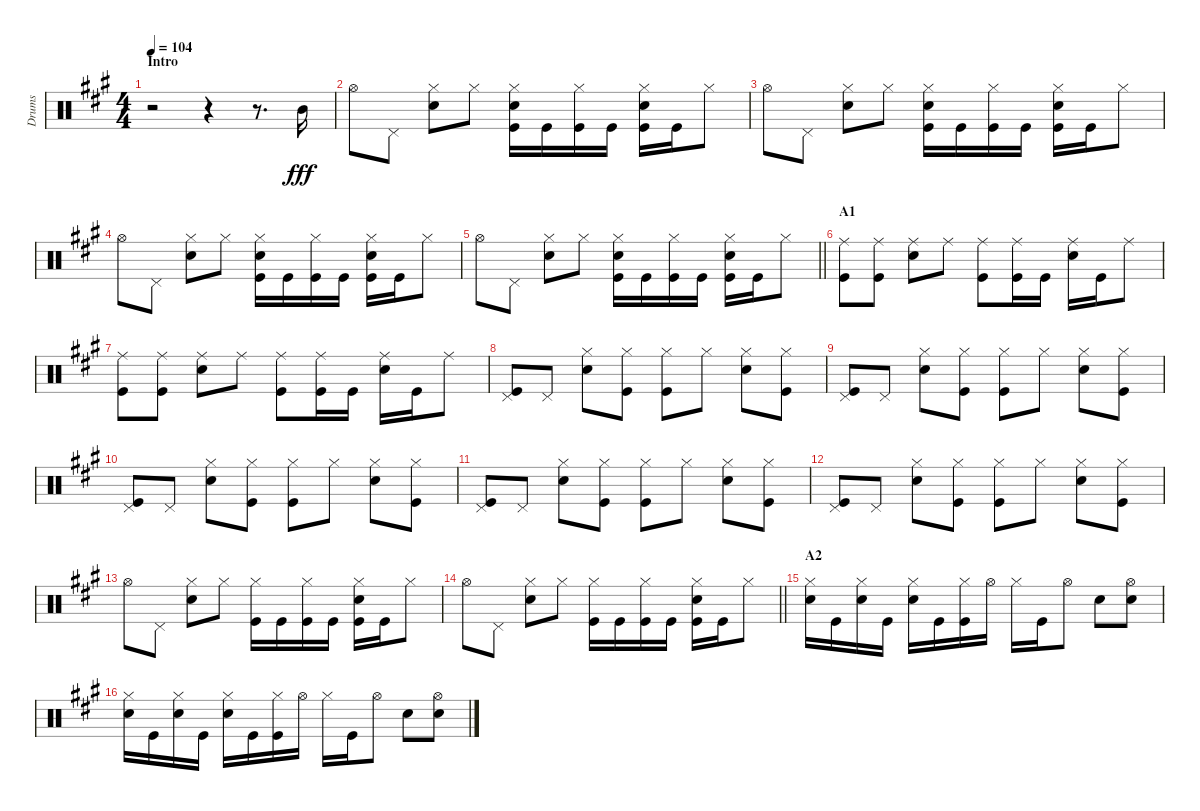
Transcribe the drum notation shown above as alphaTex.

\track ("Drums" "Drums") {instrument percussion}
\staff {score}
\articulation defaults
\ts (4 4)
\section ("" "Intro")
\tempo 104
\clef neutral
\ks a
r.2{dy fff} r.4 r.8{d} "Mid Tom (hit)".16 |
"Hi-Hat (open)".8 "Pedal Hi-Hat (hit)".8 ("Hi-Hat (closed)" "Snare (hit) 2").8 "Hi-Hat (closed)".8 ("Hi-Hat (closed)" "Snare (hit) 2" "Kick (hit)").16 "Kick (hit)".16 ("Hi-Hat (closed)" "Kick (hit)").16 "Kick (hit)".16 ("Hi-Hat (closed)" "Snare (hit) 2" "Kick (hit)").16 "Kick (hit)".16 "Hi-Hat (closed)".8 |
"Hi-Hat (open)".8 "Pedal Hi-Hat (hit)".8 ("Hi-Hat (closed)" "Snare (hit) 2").8 "Hi-Hat (closed)".8 ("Hi-Hat (closed)" "Snare (hit) 2" "Kick (hit)").16 "Kick (hit)".16 ("Hi-Hat (closed)" "Kick (hit)").16 "Kick (hit)".16 ("Hi-Hat (closed)" "Snare (hit) 2" "Kick (hit)").16 "Kick (hit)".16 "Hi-Hat (closed)".8 |
"Hi-Hat (open)".8 "Pedal Hi-Hat (hit)".8 ("Hi-Hat (closed)" "Snare (hit) 2").8 "Hi-Hat (closed)".8 ("Hi-Hat (closed)" "Snare (hit) 2" "Kick (hit)").16 "Kick (hit)".16 ("Hi-Hat (closed)" "Kick (hit)").16 "Kick (hit)".16 ("Hi-Hat (closed)" "Snare (hit) 2" "Kick (hit)").16 "Kick (hit)".16 "Hi-Hat (closed)".8 |
\barLineRight lightlight "Hi-Hat (open)".8 "Pedal Hi-Hat (hit)".8
("Hi-Hat (closed)" "Snare (hit) 2").8 "Hi-Hat (closed)".8 ("Hi-Hat (closed)" "Snare (hit) 2" "Kick (hit)").16 "Kick (hit)".16 ("Hi-Hat (closed)" "Kick (hit)").16 "Kick (hit)".16 ("Hi-Hat (closed)" "Snare (hit) 2" "Kick (hit)").16 "Kick (hit)".16 "Hi-Hat (closed)".8 |
\section ("" "A1")
("Ride (middle)" "Kick (hit)").8 ("Ride (middle)" "Kick (hit)").8 ("Ride (middle)" "Snare (hit) 2").8 "Ride (middle)".8 ("Ride (middle)" "Kick (hit)").8 ("Ride (middle)" "Kick (hit)").16 "Kick (hit)".16 ("Ride (middle)" "Snare (hit) 2").16 "Kick (hit)".16 "Ride (middle)".8 |
("Ride (middle)" "Kick (hit)").8 ("Ride (middle)" "Kick (hit)").8 ("Ride (middle)" "Snare (hit) 2").8 "Ride (middle)".8 ("Ride (middle)" "Kick (hit)").8 ("Ride (middle)" "Kick (hit)").16 "Kick (hit)".16 ("Ride (middle)" "Snare (hit) 2").16 "Kick (hit)".16 "Ride (middle)".8 |
("Pedal Hi-Hat (hit)" "Kick (hit)").8 "Pedal Hi-Hat (hit)".8 ("Hi-Hat (closed)" "Snare (hit) 2").8 ("Hi-Hat (closed)" "Kick (hit)").8 ("Hi-Hat (closed)" "Kick (hit)").8 "Hi-Hat (closed)".8 ("Hi-Hat (closed)" "Snare (hit) 2").8 ("Hi-Hat (closed)" "Kick (hit)").8 |
("Pedal Hi-Hat (hit)" "Kick (hit)").8 "Pedal Hi-Hat (hit)".8 ("Hi-Hat (closed)" "Snare (hit) 2").8 ("Hi-Hat (closed)" "Kick (hit)").8 ("Hi-Hat (closed)" "Kick (hit)").8 "Hi-Hat (closed)".8 ("Hi-Hat (closed)" "Snare (hit) 2").8 ("Hi-Hat (closed)" "Kick (hit)").8 |
("Pedal Hi-Hat (hit)" "Kick (hit)").8 "Pedal Hi-Hat (hit)".8 ("Hi-Hat (closed)" "Snare (hit) 2").8 ("Hi-Hat (closed)" "Kick (hit)").8 ("Hi-Hat (closed)" "Kick (hit)").8 "Hi-Hat (closed)".8 ("Hi-Hat (closed)" "Snare (hit) 2").8 ("Hi-Hat (closed)" "Kick (hit)").8 |
("Pedal Hi-Hat (hit)" "Kick (hit)").8 "Pedal Hi-Hat (hit)".8 ("Hi-Hat (closed)" "Snare (hit) 2").8 ("Hi-Hat (closed)" "Kick (hit)").8 ("Hi-Hat (closed)" "Kick (hit)").8 "Hi-Hat (closed)".8 ("Hi-Hat (closed)" "Snare (hit) 2").8 ("Hi-Hat (closed)" "Kick (hit)").8 |
("Pedal Hi-Hat (hit)" "Kick (hit)").8 "Pedal Hi-Hat (hit)".8 ("Hi-Hat (closed)" "Snare (hit) 2").8 ("Hi-Hat (closed)" "Kick (hit)").8 ("Hi-Hat (closed)" "Kick (hit)").8 "Hi-Hat (closed)".8 ("Hi-Hat (closed)" "Snare (hit) 2").8 ("Hi-Hat (closed)" "Kick (hit)").8 |
"Hi-Hat (open)".8 "Pedal Hi-Hat (hit)".8 ("Hi-Hat (closed)" "Snare (hit) 2").8 "Hi-Hat (closed)".8 ("Hi-Hat (closed)" "Kick (hit)").16 "Kick (hit)".16 ("Hi-Hat (closed)" "Kick (hit)").16 "Kick (hit)".16 ("Hi-Hat (closed)" "Snare (hit) 2" "Kick (hit)").16 "Kick (hit)".16 "Hi-Hat (closed)".8 |
\barLineRight lightlight "Hi-Hat (open)".8 "Pedal Hi-Hat (hit)".8
("Hi-Hat (closed)" "Snare (hit) 2").8 "Hi-Hat (closed)".8 ("Hi-Hat (closed)" "Kick (hit)").16 "Kick (hit)".16 ("Hi-Hat (closed)" "Kick (hit)").16 "Kick (hit)".16 ("Hi-Hat (closed)" "Snare (hit) 2" "Kick (hit)").16 "Kick (hit)".16 "Hi-Hat (closed)".8 |
\section ("" "A2")
("Hi-Hat (closed)" "Snare (hit) 2").16 "Kick (hit)".16 ("Hi-Hat (closed)" "Snare (hit) 2").16 "Kick (hit)".16 ("Hi-Hat (closed)" "Snare (hit) 2").16 "Kick (hit)".16 ("Hi-Hat (closed)" "Kick (hit)").16 "Hi-Hat (open)".16 "Hi-Hat (closed)".16 "Kick (hit)".16 "Hi-Hat (open)".8 "Snare (hit) 2".8 ("Hi-Hat (open)" "Snare (hit) 2").8 |
("Hi-Hat (closed)" "Snare (hit) 2").16 "Kick (hit)".16 ("Hi-Hat (closed)" "Snare (hit) 2").16 "Kick (hit)".16 ("Hi-Hat (closed)" "Snare (hit) 2").16 "Kick (hit)".16 ("Hi-Hat (closed)" "Kick (hit)").16 "Hi-Hat (open)".16 "Hi-Hat (closed)".16 "Kick (hit)".16 "Hi-Hat (open)".8 "Snare (hit) 2".8 ("Hi-Hat (open)" "Snare (hit) 2").8
